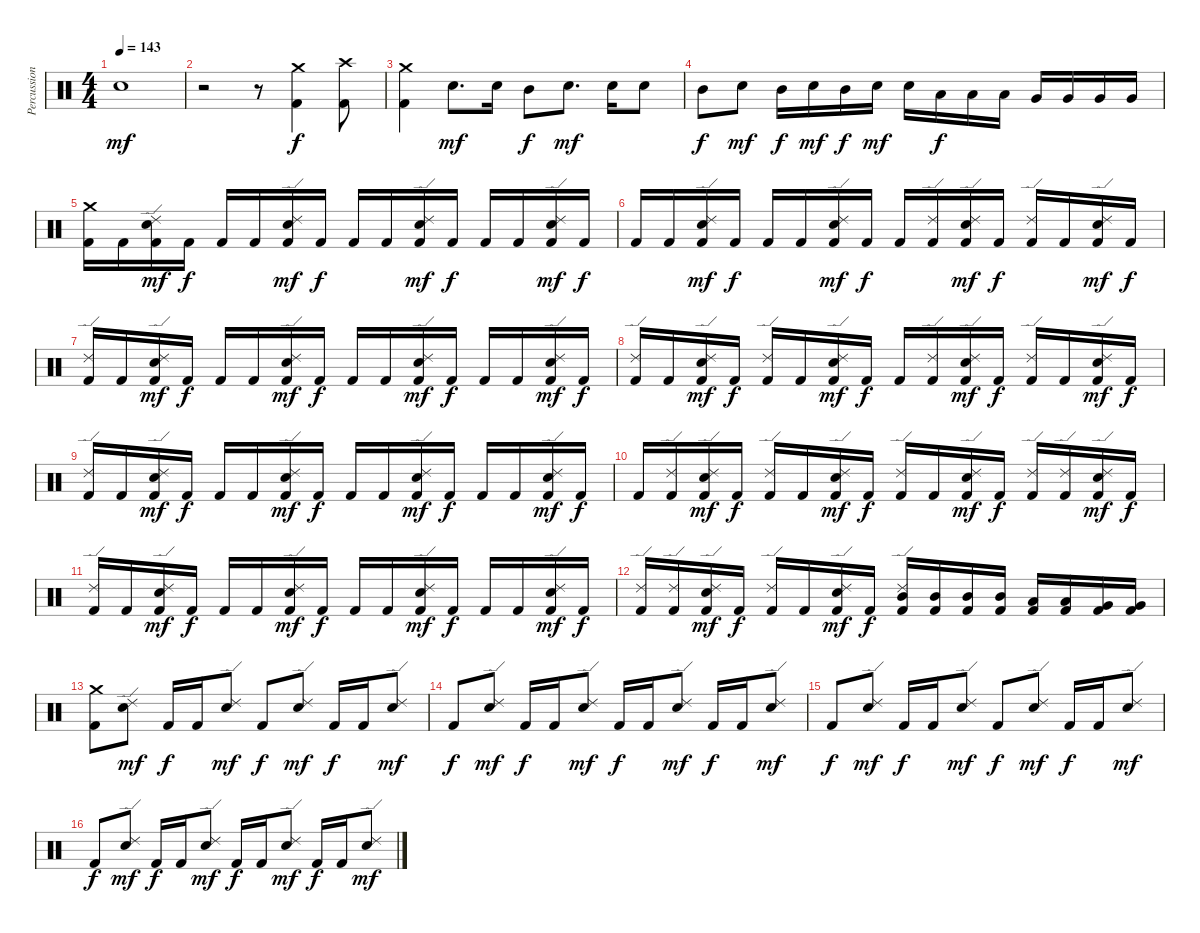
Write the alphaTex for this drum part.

\track ("Percussion" "Percussion") {instrument percussion}
\staff {score}
\articulation defaults
\ts (4 4)
\tempo 143
\clef neutral
\ks c "Electric Snare (hit)".1{dy mf}
|
r.2 r.8 ("Crash medium (hit)" "Kick (hit) 2").4{dy f} ("Crash high (hit)" "Kick (hit) 2").8 |
("Crash medium (hit)" "Kick (hit) 2").4 "Electric Snare (hit)".8{d dy mf} "Electric Snare (hit)".16 "Mid Tom (hit)".8{dy f} "Electric Snare (hit)".8{d dy mf} "Electric Snare (hit)".16 "Electric Snare (hit)".8 |
"Mid Tom (hit)".8{dy f} "Electric Snare (hit)".8{dy mf} "Mid Tom (hit)".16{dy f} "Electric Snare (hit)".16{dy mf} "Mid Tom (hit)".16{dy f} "Electric Snare (hit)".16{dy mf} "Electric Snare (hit)".16 "Low Tom (hit)".16{dy f} "Low Tom (hit)".16 "Low Tom (hit)".16 "Very Low Tom (hit)".16 "Very Low Tom (hit)".16 "Very Low Tom (hit)".16 "Very Low Tom (hit)".16 |
("Crash medium (hit)" "Kick (hit) 2").16 "Kick (hit) 2".16 ("Ride (edge) 2" "Electric Snare (hit)" "Kick (hit) 2").16{dy mf} "Kick (hit) 2".16{dy f} "Kick (hit) 2".16 "Kick (hit) 2".16 ("Ride (edge) 2" "Electric Snare (hit)" "Kick (hit) 2").16{dy mf} "Kick (hit) 2".16{dy f} "Kick (hit) 2".16 "Kick (hit) 2".16 ("Ride (edge) 2" "Electric Snare (hit)" "Kick (hit) 2").16{dy mf} "Kick (hit) 2".16{dy f} "Kick (hit) 2".16 "Kick (hit) 2".16 ("Ride (edge) 2" "Electric Snare (hit)" "Kick (hit) 2").16{dy mf} "Kick (hit) 2".16{dy f} |
"Kick (hit) 2".16 "Kick (hit) 2".16 ("Ride (edge) 2" "Electric Snare (hit)" "Kick (hit) 2").16{dy mf} "Kick (hit) 2".16{dy f} "Kick (hit) 2".16 "Kick (hit) 2".16 ("Ride (edge) 2" "Electric Snare (hit)" "Kick (hit) 2").16{dy mf} "Kick (hit) 2".16{dy f} "Kick (hit) 2".16 ("Ride (edge) 2" "Kick (hit) 2").16 ("Ride (edge) 2" "Electric Snare (hit)" "Kick (hit) 2").16{dy mf} "Kick (hit) 2".16{dy f} ("Ride (edge) 2" "Kick (hit) 2").16 "Kick (hit) 2".16 ("Ride (edge) 2" "Electric Snare (hit)" "Kick (hit) 2").16{dy mf} "Kick (hit) 2".16{dy f} |
("Ride (edge) 2" "Kick (hit) 2").16 "Kick (hit) 2".16 ("Ride (edge) 2" "Electric Snare (hit)" "Kick (hit) 2").16{dy mf} "Kick (hit) 2".16{dy f} "Kick (hit) 2".16 "Kick (hit) 2".16 ("Ride (edge) 2" "Electric Snare (hit)" "Kick (hit) 2").16{dy mf} "Kick (hit) 2".16{dy f} "Kick (hit) 2".16 "Kick (hit) 2".16 ("Ride (edge) 2" "Electric Snare (hit)" "Kick (hit) 2").16{dy mf} "Kick (hit) 2".16{dy f} "Kick (hit) 2".16 "Kick (hit) 2".16 ("Ride (edge) 2" "Electric Snare (hit)" "Kick (hit) 2").16{dy mf} "Kick (hit) 2".16{dy f} |
("Ride (edge) 2" "Kick (hit) 2").16 "Kick (hit) 2".16 ("Ride (edge) 2" "Electric Snare (hit)" "Kick (hit) 2").16{dy mf} "Kick (hit) 2".16{dy f} ("Ride (edge) 2" "Kick (hit) 2").16 "Kick (hit) 2".16 ("Ride (edge) 2" "Electric Snare (hit)" "Kick (hit) 2").16{dy mf} "Kick (hit) 2".16{dy f} "Kick (hit) 2".16 ("Ride (edge) 2" "Kick (hit) 2").16 ("Ride (edge) 2" "Electric Snare (hit)" "Kick (hit) 2").16{dy mf} "Kick (hit) 2".16{dy f} ("Ride (edge) 2" "Kick (hit) 2").16 "Kick (hit) 2".16 ("Ride (edge) 2" "Electric Snare (hit)" "Kick (hit) 2").16{dy mf} "Kick (hit) 2".16{dy f} |
("Ride (edge) 2" "Kick (hit) 2").16 "Kick (hit) 2".16 ("Ride (edge) 2" "Electric Snare (hit)" "Kick (hit) 2").16{dy mf} "Kick (hit) 2".16{dy f} "Kick (hit) 2".16 "Kick (hit) 2".16 ("Ride (edge) 2" "Electric Snare (hit)" "Kick (hit) 2").16{dy mf} "Kick (hit) 2".16{dy f} "Kick (hit) 2".16 "Kick (hit) 2".16 ("Ride (edge) 2" "Electric Snare (hit)" "Kick (hit) 2").16{dy mf} "Kick (hit) 2".16{dy f} "Kick (hit) 2".16 "Kick (hit) 2".16 ("Ride (edge) 2" "Electric Snare (hit)" "Kick (hit) 2").16{dy mf} "Kick (hit) 2".16{dy f} |
"Kick (hit) 2".16 ("Ride (edge) 2" "Kick (hit) 2").16 ("Ride (edge) 2" "Electric Snare (hit)" "Kick (hit) 2").16{dy mf} "Kick (hit) 2".16{dy f} ("Ride (edge) 2" "Kick (hit) 2").16 "Kick (hit) 2".16 ("Ride (edge) 2" "Electric Snare (hit)" "Kick (hit) 2").16{dy mf} "Kick (hit) 2".16{dy f} ("Ride (edge) 2" "Kick (hit) 2").16 "Kick (hit) 2".16 ("Ride (edge) 2" "Electric Snare (hit)" "Kick (hit) 2").16{dy mf} "Kick (hit) 2".16{dy f} ("Ride (edge) 2" "Kick (hit) 2").16 ("Ride (edge) 2" "Kick (hit) 2").16 ("Ride (edge) 2" "Electric Snare (hit)" "Kick (hit) 2").16{dy mf} "Kick (hit) 2".16{dy f} |
("Ride (edge) 2" "Kick (hit) 2").16 "Kick (hit) 2".16 ("Ride (edge) 2" "Electric Snare (hit)" "Kick (hit) 2").16{dy mf} "Kick (hit) 2".16{dy f} "Kick (hit) 2".16 "Kick (hit) 2".16 ("Ride (edge) 2" "Electric Snare (hit)" "Kick (hit) 2").16{dy mf} "Kick (hit) 2".16{dy f} "Kick (hit) 2".16 "Kick (hit) 2".16 ("Ride (edge) 2" "Electric Snare (hit)" "Kick (hit) 2").16{dy mf} "Kick (hit) 2".16{dy f} "Kick (hit) 2".16 "Kick (hit) 2".16 ("Ride (edge) 2" "Electric Snare (hit)" "Kick (hit) 2").16{dy mf} "Kick (hit) 2".16{dy f} |
("Ride (edge) 2" "Kick (hit) 2").16 ("Ride (edge) 2" "Kick (hit) 2").16 ("Ride (edge) 2" "Electric Snare (hit)" "Kick (hit) 2").16{dy mf} "Kick (hit) 2".16{dy f} ("Ride (edge) 2" "Kick (hit) 2").16 "Kick (hit) 2".16 ("Ride (edge) 2" "Electric Snare (hit)" "Kick (hit) 2").16{dy mf} "Kick (hit) 2".16{dy f} ("Ride (edge) 2" "Mid Tom (hit)" "Kick (hit) 2").16 ("Mid Tom (hit)" "Kick (hit) 2").16 ("Mid Tom (hit)" "Kick (hit) 2").16 ("Mid Tom (hit)" "Kick (hit) 2").16 ("Low Tom (hit)" "Kick (hit) 2").16 ("Low Tom (hit)" "Kick (hit) 2").16 ("Very Low Tom (hit)" "Kick (hit) 2").16 ("Very Low Tom (hit)" "Kick (hit) 2").16 |
("Crash medium (hit)" "Kick (hit) 2").8 ("Ride (edge) 2" "Electric Snare (hit)").8{dy mf} "Kick (hit) 2".16{dy f} "Kick (hit) 2".16 ("Ride (edge) 2" "Electric Snare (hit)").8{dy mf} "Kick (hit) 2".8{dy f} ("Ride (edge) 2" "Electric Snare (hit)").8{dy mf} "Kick (hit) 2".16{dy f} "Kick (hit) 2".16 ("Ride (edge) 2" "Electric Snare (hit)").8{dy mf} |
"Kick (hit) 2".8{dy f} ("Ride (edge) 2" "Electric Snare (hit)").8{dy mf} "Kick (hit) 2".16{dy f} "Kick (hit) 2".16 ("Ride (edge) 2" "Electric Snare (hit)").8{dy mf} "Kick (hit) 2".16{dy f} "Kick (hit) 2".16 ("Ride (edge) 2" "Electric Snare (hit)").8{dy mf} "Kick (hit) 2".16{dy f} "Kick (hit) 2".16 ("Ride (edge) 2" "Electric Snare (hit)").8{dy mf} |
"Kick (hit) 2".8{dy f} ("Ride (edge) 2" "Electric Snare (hit)").8{dy mf} "Kick (hit) 2".16{dy f} "Kick (hit) 2".16 ("Ride (edge) 2" "Electric Snare (hit)").8{dy mf} "Kick (hit) 2".8{dy f} ("Ride (edge) 2" "Electric Snare (hit)").8{dy mf} "Kick (hit) 2".16{dy f} "Kick (hit) 2".16 ("Ride (edge) 2" "Electric Snare (hit)").8{dy mf} |
"Kick (hit) 2".8{dy f} ("Ride (edge) 2" "Electric Snare (hit)").8{dy mf} "Kick (hit) 2".16{dy f} "Kick (hit) 2".16 ("Ride (edge) 2" "Electric Snare (hit)").8{dy mf} "Kick (hit) 2".16{dy f} "Kick (hit) 2".16 ("Ride (edge) 2" "Electric Snare (hit)").8{dy mf} "Kick (hit) 2".16{dy f} "Kick (hit) 2".16 ("Ride (edge) 2" "Electric Snare (hit)").8{dy mf}
